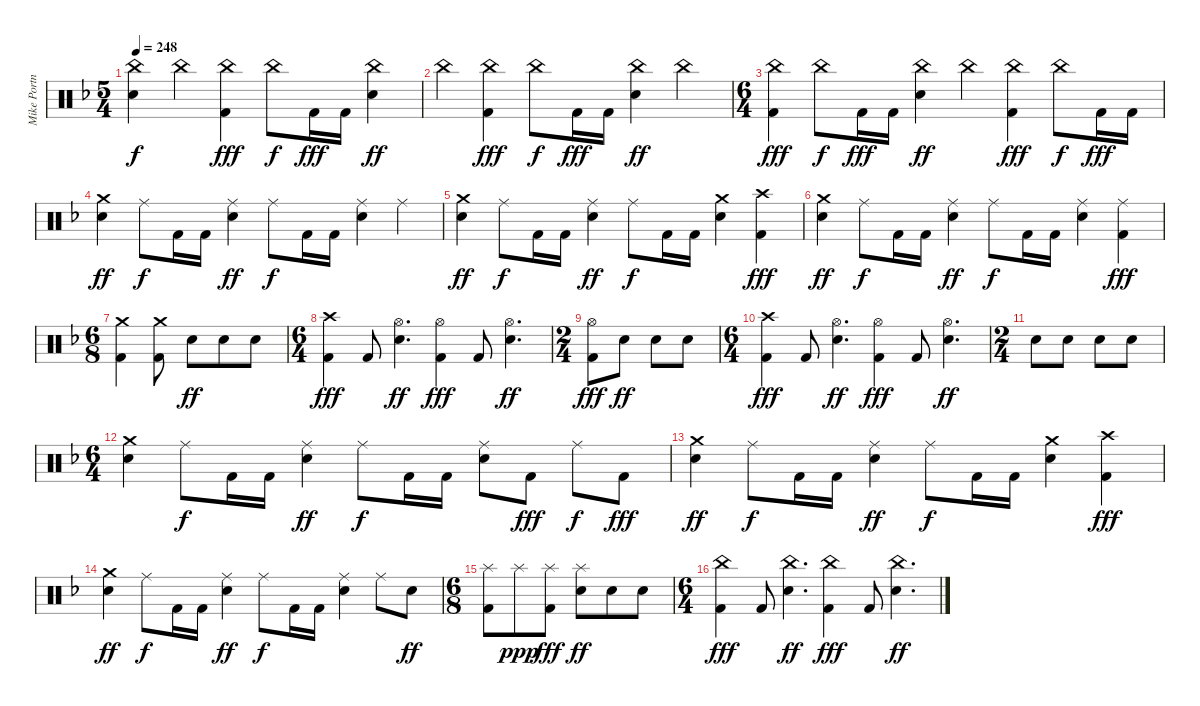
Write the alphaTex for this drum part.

\track ("Mike Portnoy Drums" "Mike Portn") {instrument percussion}
\staff {score}
\articulation defaults
\ts (5 4)
\tempo 248
\clef neutral
\ks dminor
("China (hit)" "Electric Snare (hit)").4{dy f} "China (hit)".4 ("China (hit)" "Kick (hit) 2").4{dy fff} "China (hit)".8{dy f} "Kick (hit) 2".16{dy fff} "Kick (hit) 2".16 ("China (hit)" "Electric Snare (hit)").4{dy ff} |
"China (hit)".4 ("China (hit)" "Kick (hit) 2").4{dy fff} "China (hit)".8{dy f} "Kick (hit) 2".16{dy fff} "Kick (hit) 2".16 ("China (hit)" "Electric Snare (hit)").4{dy ff} "China (hit)".4 |
\ts (6 4)
("China (hit)" "Kick (hit) 2").4{dy fff} "China (hit)".8{dy f} "Kick (hit) 2".16{dy fff} "Kick (hit) 2".16 ("China (hit)" "Electric Snare (hit)").4{dy ff} "China (hit)".4 ("China (hit)" "Kick (hit) 2").4{dy fff} "China (hit)".8{dy f} "Kick (hit) 2".16{dy fff} "Kick (hit) 2".16 |
("Crash medium (hit)" "Electric Snare (hit)").4{dy ff} "Ride (middle)".8{dy f} "Kick (hit) 2".16 "Kick (hit) 2".16 ("Ride (middle)" "Electric Snare (hit)").4{dy ff} "Ride (middle)".8{dy f} "Kick (hit) 2".16 "Kick (hit) 2".16 ("Ride (middle)" "Electric Snare (hit)").4 "Ride (middle)".4 |
("Crash medium (hit)" "Electric Snare (hit)").4{dy ff} "Ride (middle)".8{dy f} "Kick (hit) 2".16 "Kick (hit) 2".16 ("Ride (middle)" "Electric Snare (hit)").4{dy ff} "Ride (middle)".8{dy f} "Kick (hit) 2".16 "Kick (hit) 2".16 ("Crash medium (hit)" "Electric Snare (hit)").4 ("Crash high (hit)" "Kick (hit) 2").4{dy fff} |
("Crash medium (hit)" "Electric Snare (hit)").4{dy ff} "Ride (middle)".8{dy f} "Kick (hit) 2".16 "Kick (hit) 2".16 ("Ride (middle)" "Electric Snare (hit)").4{dy ff} "Ride (middle)".8{dy f} "Kick (hit) 2".16 "Kick (hit) 2".16 ("Ride (middle)" "Electric Snare (hit)").4 ("Ride (middle)" "Kick (hit) 2").4{dy fff} |
\ts (6 8)
("Crash medium (hit)" "Kick (hit) 2").4 ("Crash medium (hit)" "Kick (hit) 2").8 "Electric Snare (hit)".8{dy ff} "Electric Snare (hit)".8 "Electric Snare (hit)".8 |
\ts (6 4)
("Crash high (hit)" "Kick (hit) 2").4{dy fff} "Kick (hit) 2".8 ("Hi-Hat (open)" "Electric Snare (hit)").4{d dy ff} ("Hi-Hat (open)" "Kick (hit) 2").4{dy fff} "Kick (hit) 2".8 ("Hi-Hat (open)" "Electric Snare (hit)").4{d dy ff} |
\ts (2 4)
("Hi-Hat (open)" "Kick (hit) 2").8{dy fff} "Electric Snare (hit)".8{dy ff} "Electric Snare (hit)".8 "Electric Snare (hit)".8 |
\ts (6 4)
("Crash high (hit)" "Kick (hit) 2").4{dy fff} "Kick (hit) 2".8 ("Hi-Hat (open)" "Electric Snare (hit)").4{d dy ff} ("Hi-Hat (open)" "Kick (hit) 2").4{dy fff} "Kick (hit) 2".8 ("Hi-Hat (open)" "Electric Snare (hit)").4{d dy ff} |
\ts (2 4)
"Electric Snare (hit)".8 "Electric Snare (hit)".8 "Electric Snare (hit)".8 "Electric Snare (hit)".8 |
\ts (6 4)
("Crash medium (hit)" "Electric Snare (hit)").4 "Ride (middle)".8{dy f} "Kick (hit) 2".16 "Kick (hit) 2".16 ("Ride (middle)" "Electric Snare (hit)").4{dy ff} "Ride (middle)".8{dy f} "Kick (hit) 2".16 "Kick (hit) 2".16 ("Ride (middle)" "Electric Snare (hit)").8 "Kick (hit) 2".8{dy fff} "Ride (middle)".8{dy f} "Kick (hit) 2".8{dy fff} |
("Crash medium (hit)" "Electric Snare (hit)").4{dy ff} "Ride (middle)".8{dy f} "Kick (hit) 2".16 "Kick (hit) 2".16 ("Ride (middle)" "Electric Snare (hit)").4{dy ff} "Ride (middle)".8{dy f} "Kick (hit) 2".16 "Kick (hit) 2".16 ("Crash medium (hit)" "Electric Snare (hit)").4 ("Crash high (hit)" "Kick (hit) 2").4{dy fff} |
("Crash medium (hit)" "Electric Snare (hit)").4{dy ff} "Ride (middle)".8{dy f} "Kick (hit) 2".16 "Kick (hit) 2".16 ("Ride (middle)" "Electric Snare (hit)").4{dy ff} "Ride (middle)".8{dy f} "Kick (hit) 2".16 "Kick (hit) 2".16 ("Ride (middle)" "Electric Snare (hit)").4 "Ride (middle)".8 "Electric Snare (hit)".8{dy ff} |
\ts (6 8)
("Splash (hit)" "Kick (hit) 2").8 "Splash (hit)".8{dy ppp} ("Splash (hit)" "Kick (hit) 2").8{dy fff} ("Splash (hit)" "Electric Snare (hit)").8{dy ff} "Electric Snare (hit)".8 "Electric Snare (hit)".8 |
\ts (6 4)
("China (hit)" "Kick (hit) 2").4{dy fff} "Kick (hit) 2".8 ("China (hit)" "Electric Snare (hit)").4{d dy ff} ("China (hit)" "Kick (hit) 2").4{dy fff} "Kick (hit) 2".8 ("China (hit)" "Electric Snare (hit)").4{d dy ff}
